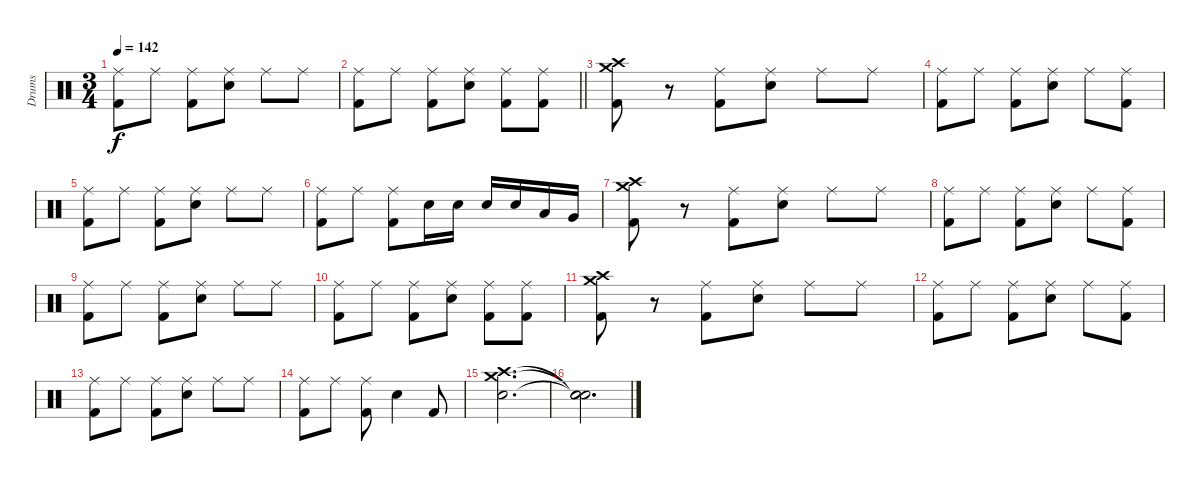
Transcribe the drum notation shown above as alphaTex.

\track ("Drums" "Drums") {instrument percussion}
\staff {score}
\articulation defaults
\ts (3 4)
\tempo 142
\clef neutral
\ks c
("Ride (middle)" "Kick (hit) 2").8{dy f} "Ride (middle)".8 ("Ride (middle)" "Kick (hit) 2").8 ("Ride (middle)" "Electric Snare (hit)").8 "Ride (middle)".8 "Ride (middle)".8 |
\barLineRight lightlight
("Ride (middle)" "Kick (hit) 2").8 "Ride (middle)".8 ("Ride (middle)" "Kick (hit) 2").8 ("Ride (middle)" "Electric Snare (hit)").8 ("Ride (middle)" "Kick (hit) 2").8 ("Ride (middle)" "Kick (hit) 2").8 |
("Crash medium (hit)" "Crash high (hit)" "Kick (hit) 2").8 r.8 ("Ride (middle)" "Kick (hit) 2").8 ("Ride (middle)" "Electric Snare (hit)").8 "Ride (middle)".8 "Ride (middle)".8 |
("Ride (middle)" "Kick (hit) 2").8 "Ride (middle)".8 ("Ride (middle)" "Kick (hit) 2").8 ("Ride (middle)" "Electric Snare (hit)").8 "Ride (middle)".8 ("Ride (middle)" "Kick (hit) 2").8 |
("Ride (middle)" "Kick (hit) 2").8 "Ride (middle)".8 ("Ride (middle)" "Kick (hit) 2").8 ("Ride (middle)" "Electric Snare (hit)").8 "Ride (middle)".8 "Ride (middle)".8 |
("Ride (middle)" "Kick (hit) 2").8 "Ride (middle)".8 ("Ride (middle)" "Kick (hit) 2").8 "Electric Snare (hit)".16 "Electric Snare (hit)".16 "Electric Snare (hit)".16 "Electric Snare (hit)".16 "Low Tom (hit)".16 "Very Low Tom (hit)".16 |
("Crash medium (hit)" "Crash high (hit)" "Kick (hit) 2").8 r.8 ("Ride (middle)" "Kick (hit) 2").8 ("Ride (middle)" "Electric Snare (hit)").8 "Ride (middle)".8 "Ride (middle)".8 |
("Ride (middle)" "Kick (hit) 2").8 "Ride (middle)".8 ("Ride (middle)" "Kick (hit) 2").8 ("Ride (middle)" "Electric Snare (hit)").8 "Ride (middle)".8 ("Ride (middle)" "Kick (hit) 2").8 |
("Ride (middle)" "Kick (hit) 2").8 "Ride (middle)".8 ("Ride (middle)" "Kick (hit) 2").8 ("Ride (middle)" "Electric Snare (hit)").8 "Ride (middle)".8 "Ride (middle)".8 |
("Ride (middle)" "Kick (hit) 2").8 "Ride (middle)".8 ("Ride (middle)" "Kick (hit) 2").8 ("Ride (middle)" "Electric Snare (hit)").8 ("Ride (middle)" "Kick (hit) 2").8 ("Ride (middle)" "Kick (hit) 2").8 |
("Crash medium (hit)" "Crash high (hit)" "Kick (hit) 2").8 r.8 ("Ride (middle)" "Kick (hit) 2").8 ("Ride (middle)" "Electric Snare (hit)").8 "Ride (middle)".8 "Ride (middle)".8 |
("Ride (middle)" "Kick (hit) 2").8 "Ride (middle)".8 ("Ride (middle)" "Kick (hit) 2").8 ("Ride (middle)" "Electric Snare (hit)").8 "Ride (middle)".8 ("Ride (middle)" "Kick (hit) 2").8 |
("Ride (middle)" "Kick (hit) 2").8 "Ride (middle)".8 ("Ride (middle)" "Kick (hit) 2").8 ("Ride (middle)" "Electric Snare (hit)").8 "Ride (middle)".8 "Ride (middle)".8 |
("Ride (middle)" "Kick (hit) 2").8 "Ride (middle)".8 ("Ride (middle)" "Kick (hit) 2").8 "Electric Snare (hit)".4 "Kick (hit) 2".8 |
("Crash medium (hit)" "Crash high (hit)" "Electric Snare (hit)").2{d} |
("Snare (hit)"{t} "Snare (hit)"{t} "Snare (hit)"{t}).2{d}
